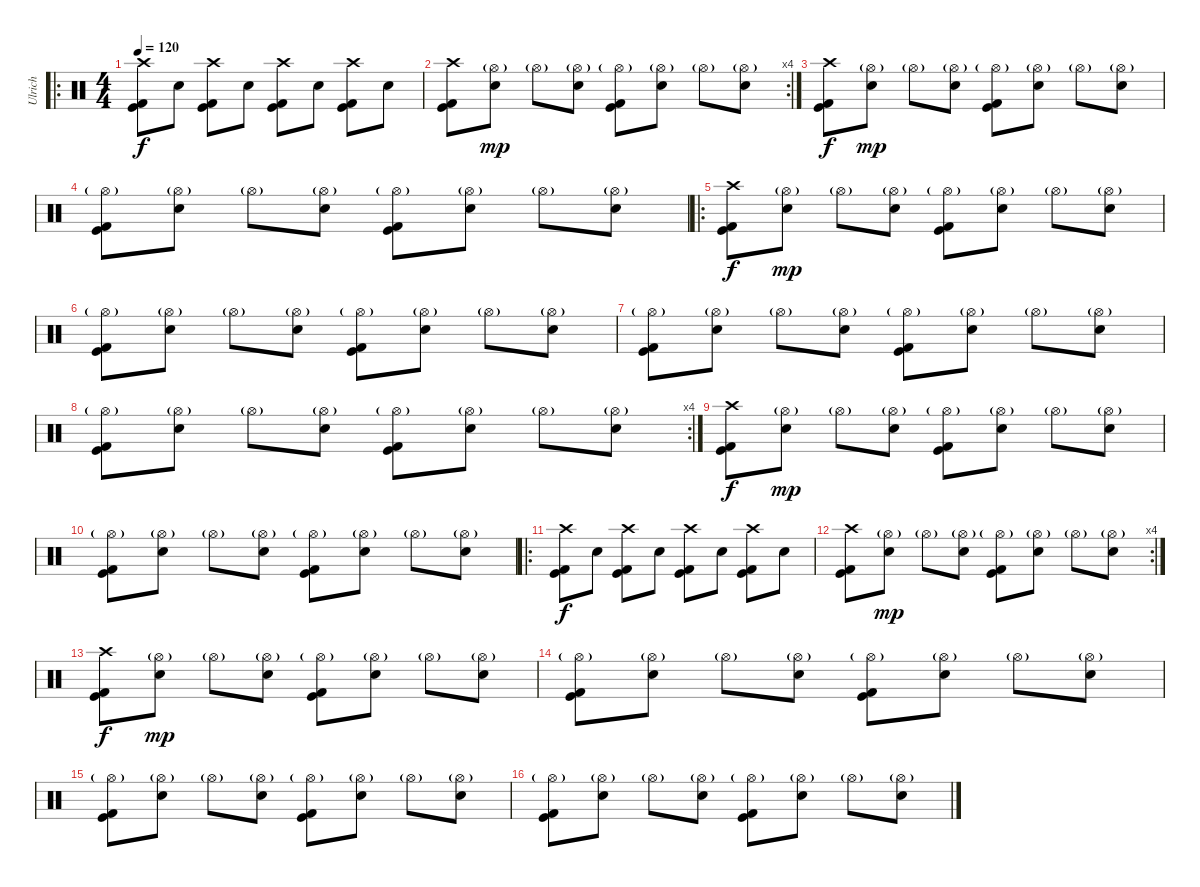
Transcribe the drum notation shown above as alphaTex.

\track ("Ulrich" "Ulrich") {instrument percussion}
\staff {score}
\articulation defaults
\ro
\ts (4 4)
\tempo 120
\clef neutral
\ks c
("Crash high (hit)" "Kick (hit)" "Kick (hit) 2").8{dy f} "Electric Snare (hit)".8 ("Crash high (hit)" "Kick (hit)" "Kick (hit) 2").8 "Electric Snare (hit)".8 ("Crash high (hit)" "Kick (hit)" "Kick (hit) 2").8 "Electric Snare (hit)".8 ("Crash high (hit)" "Kick (hit)" "Kick (hit) 2").8 "Electric Snare (hit)".8 |
\rc 4
("Crash high (hit)" "Kick (hit)" "Kick (hit) 2").8 ("Hi-Hat (open)"{g} "Electric Snare (hit)").8{dy mp} "Hi-Hat (open)"{g}.8 ("Hi-Hat (open)"{g} "Electric Snare (hit)").8 ("Hi-Hat (open)"{g} "Kick (hit)" "Kick (hit) 2").8 ("Hi-Hat (open)"{g} "Electric Snare (hit)").8 "Hi-Hat (open)"{g}.8 ("Hi-Hat (open)"{g} "Electric Snare (hit)").8 |
("Crash high (hit)" "Kick (hit)" "Kick (hit) 2").8{dy f} ("Hi-Hat (open)"{g} "Electric Snare (hit)").8{dy mp} "Hi-Hat (open)"{g}.8 ("Hi-Hat (open)"{g} "Electric Snare (hit)").8 ("Hi-Hat (open)"{g} "Kick (hit)" "Kick (hit) 2").8 ("Hi-Hat (open)"{g} "Electric Snare (hit)").8 "Hi-Hat (open)"{g}.8 ("Hi-Hat (open)"{g} "Electric Snare (hit)").8 |
("Hi-Hat (open)"{g} "Kick (hit)" "Kick (hit) 2").8 ("Hi-Hat (open)"{g} "Electric Snare (hit)").8 "Hi-Hat (open)"{g}.8 ("Hi-Hat (open)"{g} "Electric Snare (hit)").8 ("Hi-Hat (open)"{g} "Kick (hit)" "Kick (hit) 2").8 ("Hi-Hat (open)"{g} "Electric Snare (hit)").8 "Hi-Hat (open)"{g}.8 ("Hi-Hat (open)"{g} "Electric Snare (hit)").8 |
\ro
("Crash high (hit)" "Kick (hit)" "Kick (hit) 2").8{dy f} ("Hi-Hat (open)"{g} "Electric Snare (hit)").8{dy mp} "Hi-Hat (open)"{g}.8 ("Hi-Hat (open)"{g} "Electric Snare (hit)").8 ("Hi-Hat (open)"{g} "Kick (hit)" "Kick (hit) 2").8 ("Hi-Hat (open)"{g} "Electric Snare (hit)").8 "Hi-Hat (open)"{g}.8 ("Hi-Hat (open)"{g} "Electric Snare (hit)").8 |
("Hi-Hat (open)"{g} "Kick (hit)" "Kick (hit) 2").8 ("Hi-Hat (open)"{g} "Electric Snare (hit)").8 "Hi-Hat (open)"{g}.8 ("Hi-Hat (open)"{g} "Electric Snare (hit)").8 ("Hi-Hat (open)"{g} "Kick (hit)" "Kick (hit) 2").8 ("Hi-Hat (open)"{g} "Electric Snare (hit)").8 "Hi-Hat (open)"{g}.8 ("Hi-Hat (open)"{g} "Electric Snare (hit)").8 |
("Hi-Hat (open)"{g} "Kick (hit)" "Kick (hit) 2").8 ("Hi-Hat (open)"{g} "Electric Snare (hit)").8 "Hi-Hat (open)"{g}.8 ("Hi-Hat (open)"{g} "Electric Snare (hit)").8 ("Hi-Hat (open)"{g} "Kick (hit)" "Kick (hit) 2").8 ("Hi-Hat (open)"{g} "Electric Snare (hit)").8 "Hi-Hat (open)"{g}.8 ("Hi-Hat (open)"{g} "Electric Snare (hit)").8 |
\rc 4
("Hi-Hat (open)"{g} "Kick (hit)" "Kick (hit) 2").8 ("Hi-Hat (open)"{g} "Electric Snare (hit)").8 "Hi-Hat (open)"{g}.8 ("Hi-Hat (open)"{g} "Electric Snare (hit)").8 ("Hi-Hat (open)"{g} "Kick (hit)" "Kick (hit) 2").8 ("Hi-Hat (open)"{g} "Electric Snare (hit)").8 "Hi-Hat (open)"{g}.8 ("Hi-Hat (open)"{g} "Electric Snare (hit)").8 |
("Crash high (hit)" "Kick (hit)" "Kick (hit) 2").8{dy f} ("Hi-Hat (open)"{g} "Electric Snare (hit)").8{dy mp} "Hi-Hat (open)"{g}.8 ("Hi-Hat (open)"{g} "Electric Snare (hit)").8 ("Hi-Hat (open)"{g} "Kick (hit)" "Kick (hit) 2").8 ("Hi-Hat (open)"{g} "Electric Snare (hit)").8 "Hi-Hat (open)"{g}.8 ("Hi-Hat (open)"{g} "Electric Snare (hit)").8 |
("Hi-Hat (open)"{g} "Kick (hit)" "Kick (hit) 2").8 ("Hi-Hat (open)"{g} "Electric Snare (hit)").8 "Hi-Hat (open)"{g}.8 ("Hi-Hat (open)"{g} "Electric Snare (hit)").8 ("Hi-Hat (open)"{g} "Kick (hit)" "Kick (hit) 2").8 ("Hi-Hat (open)"{g} "Electric Snare (hit)").8 "Hi-Hat (open)"{g}.8 ("Hi-Hat (open)"{g} "Electric Snare (hit)").8 |
\ro
("Crash high (hit)" "Kick (hit)" "Kick (hit) 2").8{dy f} "Electric Snare (hit)".8 ("Crash high (hit)" "Kick (hit)" "Kick (hit) 2").8 "Electric Snare (hit)".8 ("Crash high (hit)" "Kick (hit)" "Kick (hit) 2").8 "Electric Snare (hit)".8 ("Crash high (hit)" "Kick (hit)" "Kick (hit) 2").8 "Electric Snare (hit)".8 |
\rc 4
("Crash high (hit)" "Kick (hit)" "Kick (hit) 2").8 ("Hi-Hat (open)"{g} "Electric Snare (hit)").8{dy mp} "Hi-Hat (open)"{g}.8 ("Hi-Hat (open)"{g} "Electric Snare (hit)").8 ("Hi-Hat (open)"{g} "Kick (hit)" "Kick (hit) 2").8 ("Hi-Hat (open)"{g} "Electric Snare (hit)").8 "Hi-Hat (open)"{g}.8 ("Hi-Hat (open)"{g} "Electric Snare (hit)").8 |
("Crash high (hit)" "Kick (hit)" "Kick (hit) 2").8{dy f} ("Hi-Hat (open)"{g} "Electric Snare (hit)").8{dy mp} "Hi-Hat (open)"{g}.8 ("Hi-Hat (open)"{g} "Electric Snare (hit)").8 ("Hi-Hat (open)"{g} "Kick (hit)" "Kick (hit) 2").8 ("Hi-Hat (open)"{g} "Electric Snare (hit)").8 "Hi-Hat (open)"{g}.8 ("Hi-Hat (open)"{g} "Electric Snare (hit)").8 |
("Hi-Hat (open)"{g} "Kick (hit)" "Kick (hit) 2").8 ("Hi-Hat (open)"{g} "Electric Snare (hit)").8 "Hi-Hat (open)"{g}.8 ("Hi-Hat (open)"{g} "Electric Snare (hit)").8 ("Hi-Hat (open)"{g} "Kick (hit)" "Kick (hit) 2").8 ("Hi-Hat (open)"{g} "Electric Snare (hit)").8 "Hi-Hat (open)"{g}.8 ("Hi-Hat (open)"{g} "Electric Snare (hit)").8 |
("Hi-Hat (open)"{g} "Kick (hit)" "Kick (hit) 2").8 ("Hi-Hat (open)"{g} "Electric Snare (hit)").8 "Hi-Hat (open)"{g}.8 ("Hi-Hat (open)"{g} "Electric Snare (hit)").8 ("Hi-Hat (open)"{g} "Kick (hit)" "Kick (hit) 2").8 ("Hi-Hat (open)"{g} "Electric Snare (hit)").8 "Hi-Hat (open)"{g}.8 ("Hi-Hat (open)"{g} "Electric Snare (hit)").8 |
("Hi-Hat (open)"{g} "Kick (hit)" "Kick (hit) 2").8 ("Hi-Hat (open)"{g} "Electric Snare (hit)").8 "Hi-Hat (open)"{g}.8 ("Hi-Hat (open)"{g} "Electric Snare (hit)").8 ("Hi-Hat (open)"{g} "Kick (hit)" "Kick (hit) 2").8 ("Hi-Hat (open)"{g} "Electric Snare (hit)").8 "Hi-Hat (open)"{g}.8 ("Hi-Hat (open)"{g} "Electric Snare (hit)").8
